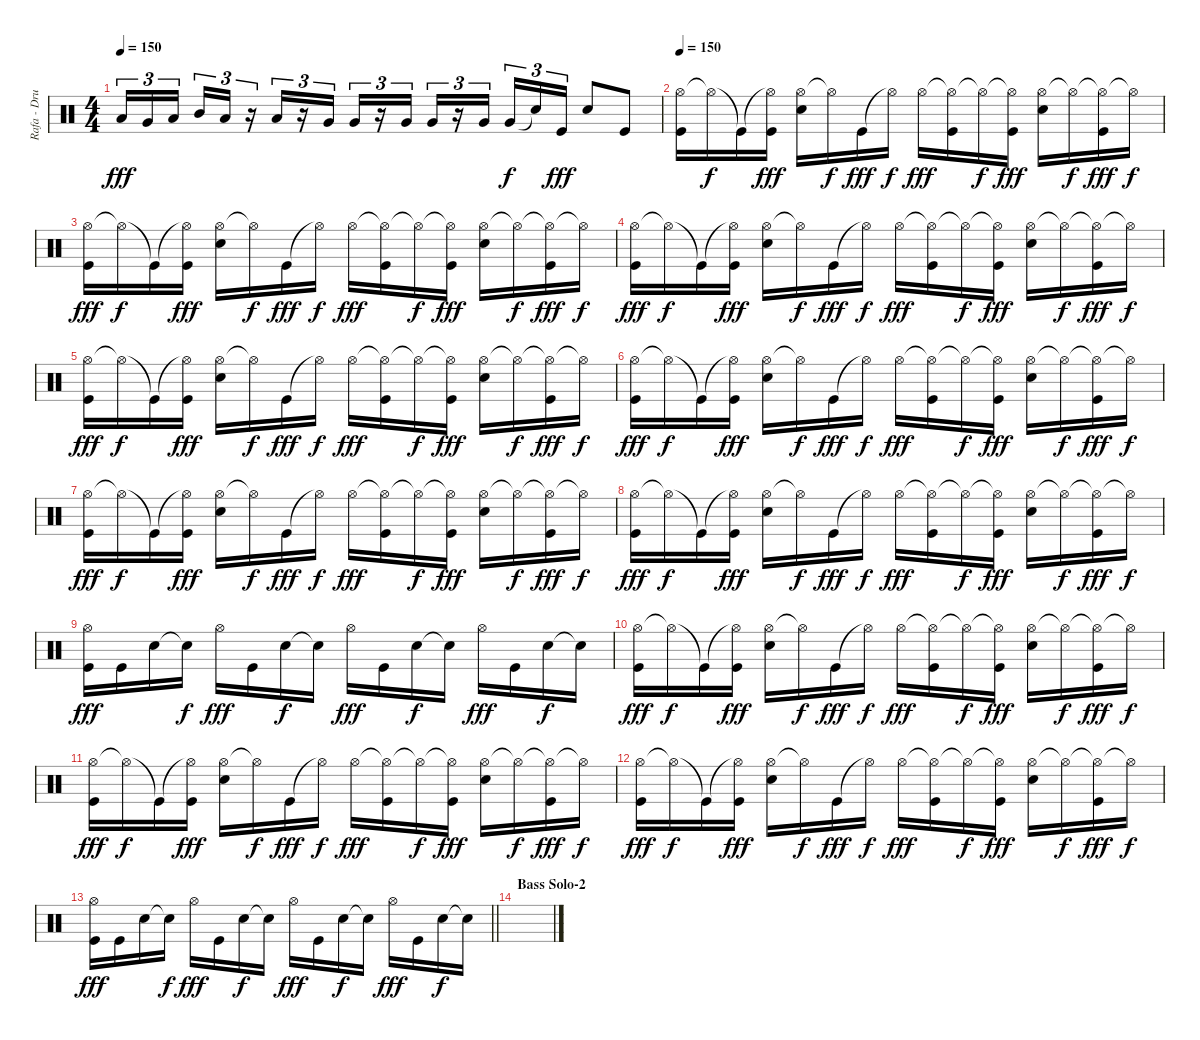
\track ("Rafa - Drums" "Rafa - Dru") {instrument percussion}
\staff {score}
\articulation defaults
\ts (4 4)
\tempo 150
\clef neutral
\ks c "Low Tom (hit)".16{tu (3 2) dy fff} "Very Low Tom (hit)".16{tu (3 2)} "Low Tom (hit)".16{tu (3 2)} "Mid Tom (hit)".16{tu (3 2)} "Low Tom (hit)".16{tu (3 2)}
r.16{tu (3 2)} "Low Tom (hit)".16{tu (3 2)} r.16{tu (3 2)} "Very Low Tom (hit)".16{tu (3 2)} "Very Low Tom (hit)".16{tu (3 2)} r.16{tu (3 2)} "Very Low Tom (hit)".16{tu (3 2)} "Very Low Tom (hit)".16{tu (3 2)} r.16{tu (3 2)} "Very Low Tom (hit)".16{tu (3 2)} "Very Low Tom (hit)".16{tu (3 2) dy f} "Snare (hit)"{t}.16{tu (3 2)} "Kick (hit)".16{tu (3 2) dy fff} "Electric Snare (hit)".8 "Kick (hit)".8 |
\tempo 150
("Hi-Hat (open)" "Kick (hit)").16 "Hi-Hat (open)"{t}.16{dy f} "Kick (hit)"{t}.16 ("Hi-Hat (open)"{t} "Kick (hit)").16{dy fff} ("Hi-Hat (open)" "Electric Snare (hit)").16 "Hi-Hat (open)"{t}.16{dy f} "Kick (hit)".16{dy fff} "Hi-Hat (open)"{t}.16{dy f} "Hi-Hat (open)".16{dy fff} ("Hi-Hat (open)"{t} "Kick (hit)").16 "Hi-Hat (open)"{t}.16{dy f} ("Hi-Hat (open)"{t} "Kick (hit)").16{dy fff} ("Hi-Hat (open)" "Electric Snare (hit)").16 "Hi-Hat (open)"{t}.16{dy f} ("Hi-Hat (open)"{t} "Kick (hit)").16{dy fff} "Hi-Hat (open)"{t}.16{dy f} |
("Hi-Hat (open)" "Kick (hit)").16{dy fff} "Hi-Hat (open)"{t}.16{dy f} "Kick (hit)"{t}.16 ("Hi-Hat (open)"{t} "Kick (hit)").16{dy fff} ("Hi-Hat (open)" "Electric Snare (hit)").16 "Hi-Hat (open)"{t}.16{dy f} "Kick (hit)".16{dy fff} "Hi-Hat (open)"{t}.16{dy f} "Hi-Hat (open)".16{dy fff} ("Hi-Hat (open)"{t} "Kick (hit)").16 "Hi-Hat (open)"{t}.16{dy f} ("Hi-Hat (open)"{t} "Kick (hit)").16{dy fff} ("Hi-Hat (open)" "Electric Snare (hit)").16 "Hi-Hat (open)"{t}.16{dy f} ("Hi-Hat (open)"{t} "Kick (hit)").16{dy fff} "Hi-Hat (open)"{t}.16{dy f} |
("Hi-Hat (open)" "Kick (hit)").16{dy fff} "Hi-Hat (open)"{t}.16{dy f} "Kick (hit)"{t}.16 ("Hi-Hat (open)"{t} "Kick (hit)").16{dy fff} ("Hi-Hat (open)" "Electric Snare (hit)").16 "Hi-Hat (open)"{t}.16{dy f} "Kick (hit)".16{dy fff} "Hi-Hat (open)"{t}.16{dy f} "Hi-Hat (open)".16{dy fff} ("Hi-Hat (open)"{t} "Kick (hit)").16 "Hi-Hat (open)"{t}.16{dy f} ("Hi-Hat (open)"{t} "Kick (hit)").16{dy fff} ("Hi-Hat (open)" "Electric Snare (hit)").16 "Hi-Hat (open)"{t}.16{dy f} ("Hi-Hat (open)"{t} "Kick (hit)").16{dy fff} "Hi-Hat (open)"{t}.16{dy f} |
("Hi-Hat (open)" "Kick (hit)").16{dy fff} "Hi-Hat (open)"{t}.16{dy f} "Kick (hit)"{t}.16 ("Hi-Hat (open)"{t} "Kick (hit)").16{dy fff} ("Hi-Hat (open)" "Electric Snare (hit)").16 "Hi-Hat (open)"{t}.16{dy f} "Kick (hit)".16{dy fff} "Hi-Hat (open)"{t}.16{dy f} "Hi-Hat (open)".16{dy fff} ("Hi-Hat (open)"{t} "Kick (hit)").16 "Hi-Hat (open)"{t}.16{dy f} ("Hi-Hat (open)"{t} "Kick (hit)").16{dy fff} ("Hi-Hat (open)" "Electric Snare (hit)").16 "Hi-Hat (open)"{t}.16{dy f} ("Hi-Hat (open)"{t} "Kick (hit)").16{dy fff} "Hi-Hat (open)"{t}.16{dy f} |
("Hi-Hat (open)" "Kick (hit)").16{dy fff} "Hi-Hat (open)"{t}.16{dy f} "Kick (hit)"{t}.16 ("Hi-Hat (open)"{t} "Kick (hit)").16{dy fff} ("Hi-Hat (open)" "Electric Snare (hit)").16 "Hi-Hat (open)"{t}.16{dy f} "Kick (hit)".16{dy fff} "Hi-Hat (open)"{t}.16{dy f} "Hi-Hat (open)".16{dy fff} ("Hi-Hat (open)"{t} "Kick (hit)").16 "Hi-Hat (open)"{t}.16{dy f} ("Hi-Hat (open)"{t} "Kick (hit)").16{dy fff} ("Hi-Hat (open)" "Electric Snare (hit)").16 "Hi-Hat (open)"{t}.16{dy f} ("Hi-Hat (open)"{t} "Kick (hit)").16{dy fff} "Hi-Hat (open)"{t}.16{dy f} |
("Hi-Hat (open)" "Kick (hit)").16{dy fff} "Hi-Hat (open)"{t}.16{dy f} "Kick (hit)"{t}.16 ("Hi-Hat (open)"{t} "Kick (hit)").16{dy fff} ("Hi-Hat (open)" "Electric Snare (hit)").16 "Hi-Hat (open)"{t}.16{dy f} "Kick (hit)".16{dy fff} "Hi-Hat (open)"{t}.16{dy f} "Hi-Hat (open)".16{dy fff} ("Hi-Hat (open)"{t} "Kick (hit)").16 "Hi-Hat (open)"{t}.16{dy f} ("Hi-Hat (open)"{t} "Kick (hit)").16{dy fff} ("Hi-Hat (open)" "Electric Snare (hit)").16 "Hi-Hat (open)"{t}.16{dy f} ("Hi-Hat (open)"{t} "Kick (hit)").16{dy fff} "Hi-Hat (open)"{t}.16{dy f} |
("Hi-Hat (open)" "Kick (hit)").16{dy fff} "Hi-Hat (open)"{t}.16{dy f} "Kick (hit)"{t}.16 ("Hi-Hat (open)"{t} "Kick (hit)").16{dy fff} ("Hi-Hat (open)" "Electric Snare (hit)").16 "Hi-Hat (open)"{t}.16{dy f} "Kick (hit)".16{dy fff} "Hi-Hat (open)"{t}.16{dy f} "Hi-Hat (open)".16{dy fff} ("Hi-Hat (open)"{t} "Kick (hit)").16 "Hi-Hat (open)"{t}.16{dy f} ("Hi-Hat (open)"{t} "Kick (hit)").16{dy fff} ("Hi-Hat (open)" "Electric Snare (hit)").16 "Hi-Hat (open)"{t}.16{dy f} ("Hi-Hat (open)"{t} "Kick (hit)").16{dy fff} "Hi-Hat (open)"{t}.16{dy f} |
("Hi-Hat (open)" "Kick (hit)").16{dy fff} "Kick (hit)".16 "Electric Snare (hit)".16 "Snare (hit)"{t}.16{dy f} "Hi-Hat (open)".16{dy fff} "Kick (hit)".16 "Electric Snare (hit)".16{dy f} "Snare (hit)"{t}.16 "Hi-Hat (open)".16{dy fff} "Kick (hit)".16 "Electric Snare (hit)".16{dy f} "Snare (hit)"{t}.16 "Hi-Hat (open)".16{dy fff} "Kick (hit)".16 "Electric Snare (hit)".16{dy f} "Electric Snare (hit)"{t}.16 |
("Hi-Hat (open)" "Kick (hit)").16{dy fff} "Hi-Hat (open)"{t}.16{dy f} "Kick (hit)"{t}.16 ("Hi-Hat (open)"{t} "Kick (hit)").16{dy fff} ("Hi-Hat (open)" "Electric Snare (hit)").16 "Hi-Hat (open)"{t}.16{dy f} "Kick (hit)".16{dy fff} "Hi-Hat (open)"{t}.16{dy f} "Hi-Hat (open)".16{dy fff} ("Hi-Hat (open)"{t} "Kick (hit)").16 "Hi-Hat (open)"{t}.16{dy f} ("Hi-Hat (open)"{t} "Kick (hit)").16{dy fff} ("Hi-Hat (open)" "Electric Snare (hit)").16 "Hi-Hat (open)"{t}.16{dy f} ("Hi-Hat (open)"{t} "Kick (hit)").16{dy fff} "Hi-Hat (open)"{t}.16{dy f} |
("Hi-Hat (open)" "Kick (hit)").16{dy fff} "Hi-Hat (open)"{t}.16{dy f} "Kick (hit)"{t}.16 ("Hi-Hat (open)"{t} "Kick (hit)").16{dy fff} ("Hi-Hat (open)" "Electric Snare (hit)").16 "Hi-Hat (open)"{t}.16{dy f} "Kick (hit)".16{dy fff} "Hi-Hat (open)"{t}.16{dy f} "Hi-Hat (open)".16{dy fff} ("Hi-Hat (open)"{t} "Kick (hit)").16 "Hi-Hat (open)"{t}.16{dy f} ("Hi-Hat (open)"{t} "Kick (hit)").16{dy fff} ("Hi-Hat (open)" "Electric Snare (hit)").16 "Hi-Hat (open)"{t}.16{dy f} ("Hi-Hat (open)"{t} "Kick (hit)").16{dy fff} "Hi-Hat (open)"{t}.16{dy f} |
("Hi-Hat (open)" "Kick (hit)").16{dy fff} "Hi-Hat (open)"{t}.16{dy f} "Kick (hit)"{t}.16 ("Hi-Hat (open)"{t} "Kick (hit)").16{dy fff} ("Hi-Hat (open)" "Electric Snare (hit)").16 "Hi-Hat (open)"{t}.16{dy f} "Kick (hit)".16{dy fff} "Hi-Hat (open)"{t}.16{dy f} "Hi-Hat (open)".16{dy fff} ("Hi-Hat (open)"{t} "Kick (hit)").16 "Hi-Hat (open)"{t}.16{dy f} ("Hi-Hat (open)"{t} "Kick (hit)").16{dy fff} ("Hi-Hat (open)" "Electric Snare (hit)").16 "Hi-Hat (open)"{t}.16{dy f} ("Hi-Hat (open)"{t} "Kick (hit)").16{dy fff} "Hi-Hat (open)"{t}.16{dy f} |
\barLineRight lightlight
("Hi-Hat (open)" "Kick (hit)").16{dy fff} "Kick (hit)".16 "Electric Snare (hit)".16 "Snare (hit)"{t}.16{dy f} "Hi-Hat (open)".16{dy fff} "Kick (hit)".16 "Electric Snare (hit)".16{dy f} "Snare (hit)"{t}.16 "Hi-Hat (open)".16{dy fff} "Kick (hit)".16 "Electric Snare (hit)".16{dy f} "Snare (hit)"{t}.16 "Hi-Hat (open)".16{dy fff} "Kick (hit)".16 "Electric Snare (hit)".16{dy f} "Electric Snare (hit)"{t}.16 |
\section ("" "Bass Solo-2")
